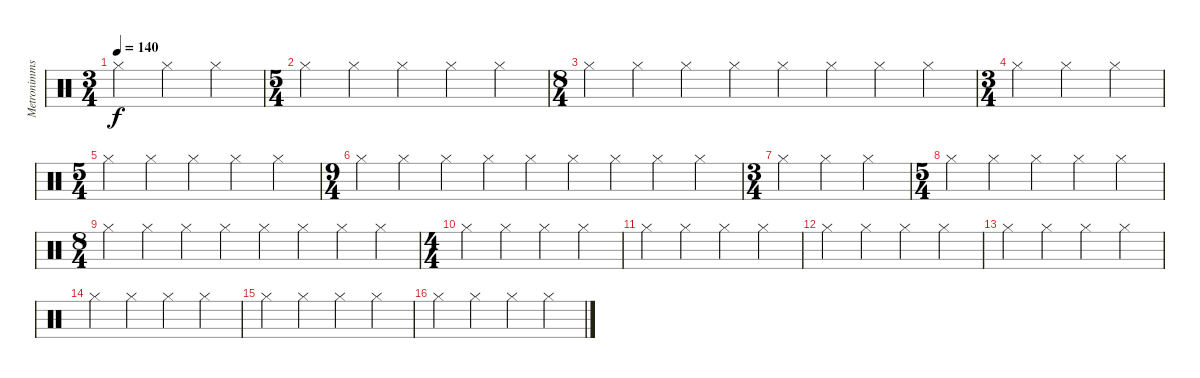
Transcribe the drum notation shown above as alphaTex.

\track ("Metronimms" "Metronimms") {instrument percussion}
\staff {score}
\articulation defaults
\ts (3 4)
\tempo 140
\clef neutral
\ks c "Hi-Hat (closed)".4{dy f} "Hi-Hat (closed)".4 "Hi-Hat (closed)".4
|
\ts (5 4)
"Hi-Hat (closed)".4 "Hi-Hat (closed)".4 "Hi-Hat (closed)".4 "Hi-Hat (closed)".4 "Hi-Hat (closed)".4 |
\ts (8 4)
"Hi-Hat (closed)".4 "Hi-Hat (closed)".4 "Hi-Hat (closed)".4 "Hi-Hat (closed)".4 "Hi-Hat (closed)".4 "Hi-Hat (closed)".4 "Hi-Hat (closed)".4 "Hi-Hat (closed)".4 |
\ts (3 4)
"Hi-Hat (closed)".4 "Hi-Hat (closed)".4 "Hi-Hat (closed)".4 |
\ts (5 4)
"Hi-Hat (closed)".4 "Hi-Hat (closed)".4 "Hi-Hat (closed)".4 "Hi-Hat (closed)".4 "Hi-Hat (closed)".4 |
\ts (9 4)
"Hi-Hat (closed)".4 "Hi-Hat (closed)".4 "Hi-Hat (closed)".4 "Hi-Hat (closed)".4 "Hi-Hat (closed)".4 "Hi-Hat (closed)".4 "Hi-Hat (closed)".4 "Hi-Hat (closed)".4 "Hi-Hat (closed)".4 |
\ts (3 4)
"Hi-Hat (closed)".4 "Hi-Hat (closed)".4 "Hi-Hat (closed)".4 |
\ts (5 4)
"Hi-Hat (closed)".4 "Hi-Hat (closed)".4 "Hi-Hat (closed)".4 "Hi-Hat (closed)".4 "Hi-Hat (closed)".4 |
\ts (8 4)
"Hi-Hat (closed)".4 "Hi-Hat (closed)".4 "Hi-Hat (closed)".4 "Hi-Hat (closed)".4 "Hi-Hat (closed)".4 "Hi-Hat (closed)".4 "Hi-Hat (closed)".4 "Hi-Hat (closed)".4 |
\ts (4 4)
"Hi-Hat (closed)".4 "Hi-Hat (closed)".4 "Hi-Hat (closed)".4 "Hi-Hat (closed)".4 |
"Hi-Hat (closed)".4 "Hi-Hat (closed)".4 "Hi-Hat (closed)".4 "Hi-Hat (closed)".4 |
"Hi-Hat (closed)".4 "Hi-Hat (closed)".4 "Hi-Hat (closed)".4 "Hi-Hat (closed)".4 |
"Hi-Hat (closed)".4 "Hi-Hat (closed)".4 "Hi-Hat (closed)".4 "Hi-Hat (closed)".4 |
"Hi-Hat (closed)".4 "Hi-Hat (closed)".4 "Hi-Hat (closed)".4 "Hi-Hat (closed)".4 |
"Hi-Hat (closed)".4 "Hi-Hat (closed)".4 "Hi-Hat (closed)".4 "Hi-Hat (closed)".4 |
"Hi-Hat (closed)".4 "Hi-Hat (closed)".4 "Hi-Hat (closed)".4 "Hi-Hat (closed)".4
